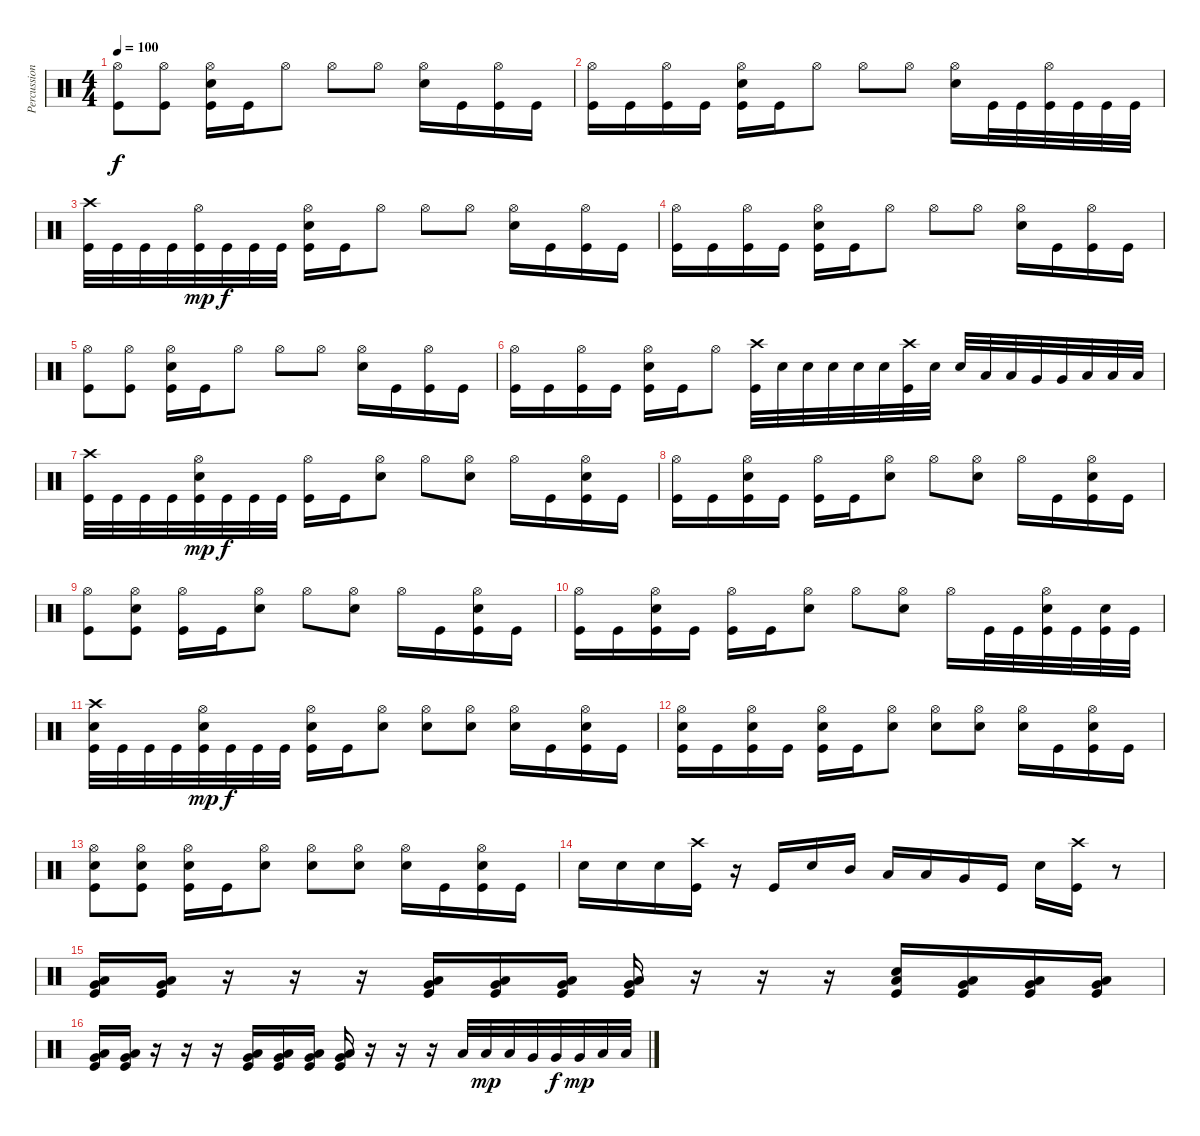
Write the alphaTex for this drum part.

\track ("Percussion" "Percussion") {instrument percussion}
\staff {score}
\articulation defaults
\ts (4 4)
\tempo 100
\clef neutral
\ks c
("Hi-Hat (open)" "Kick (hit)").8{dy f} ("Hi-Hat (open)" "Kick (hit)").8 ("Hi-Hat (open)" "Electric Snare (hit)" "Kick (hit)").16 "Kick (hit)".16 "Hi-Hat (open)".8 "Hi-Hat (open)".8 "Hi-Hat (open)".8 ("Hi-Hat (open)" "Electric Snare (hit)").16 "Kick (hit)".16 ("Hi-Hat (open)" "Kick (hit)").16 "Kick (hit)".16 |
("Hi-Hat (open)" "Kick (hit)").16 "Kick (hit)".16 ("Hi-Hat (open)" "Kick (hit)").16 "Kick (hit)".16 ("Hi-Hat (open)" "Electric Snare (hit)" "Kick (hit)").16 "Kick (hit)".16 "Hi-Hat (open)".8 "Hi-Hat (open)".8 "Hi-Hat (open)".8 ("Hi-Hat (open)" "Electric Snare (hit)").16 "Kick (hit)".32 "Kick (hit)".32 ("Hi-Hat (open)" "Kick (hit)").32 "Kick (hit)".32 "Kick (hit)".32 "Kick (hit)".32 |
("Crash high (hit)" "Kick (hit)").32 "Kick (hit)".32 "Kick (hit)".32 "Kick (hit)".32 ("Hi-Hat (open)" "Kick (hit)").32{dy mp} "Kick (hit)".32{dy f} "Kick (hit)".32 "Kick (hit)".32 ("Hi-Hat (open)" "Electric Snare (hit)" "Kick (hit)").16 "Kick (hit)".16 "Hi-Hat (open)".8 "Hi-Hat (open)".8 "Hi-Hat (open)".8 ("Hi-Hat (open)" "Electric Snare (hit)").16 "Kick (hit)".16 ("Hi-Hat (open)" "Kick (hit)").16 "Kick (hit)".16 |
("Hi-Hat (open)" "Kick (hit)").16 "Kick (hit)".16 ("Hi-Hat (open)" "Kick (hit)").16 "Kick (hit)".16 ("Hi-Hat (open)" "Electric Snare (hit)" "Kick (hit)").16 "Kick (hit)".16 "Hi-Hat (open)".8 "Hi-Hat (open)".8 "Hi-Hat (open)".8 ("Hi-Hat (open)" "Electric Snare (hit)").16 "Kick (hit)".16 ("Hi-Hat (open)" "Kick (hit)").16 "Kick (hit)".16 |
("Hi-Hat (open)" "Kick (hit)").8 ("Hi-Hat (open)" "Kick (hit)").8 ("Hi-Hat (open)" "Electric Snare (hit)" "Kick (hit)").16 "Kick (hit)".16 "Hi-Hat (open)".8 "Hi-Hat (open)".8 "Hi-Hat (open)".8 ("Hi-Hat (open)" "Electric Snare (hit)").16 "Kick (hit)".16 ("Hi-Hat (open)" "Kick (hit)").16 "Kick (hit)".16 |
("Hi-Hat (open)" "Kick (hit)").16 "Kick (hit)".16 ("Hi-Hat (open)" "Kick (hit)").16 "Kick (hit)".16 ("Hi-Hat (open)" "Electric Snare (hit)" "Kick (hit)").16 "Kick (hit)".16 "Hi-Hat (open)".8 ("Crash high (hit)" "Kick (hit)").32 "Electric Snare (hit)".32 "Electric Snare (hit)".32 "Electric Snare (hit)".32 "Electric Snare (hit)".32 "Electric Snare (hit)".32 ("Crash high (hit)" "Kick (hit)").32 "Electric Snare (hit)".32 "Electric Snare (hit)".32 "Low Tom (hit)".32 "Low Tom (hit)".32 "Very Low Tom (hit)".32 "Very Low Tom (hit)".32 "Low Floor Tom (hit)".32 "Low Floor Tom (hit)".32 "Low Floor Tom (hit)".32 |
("Crash high (hit)" "Kick (hit)").32 "Kick (hit)".32 "Kick (hit)".32 "Kick (hit)".32 ("Hi-Hat (open)" "Electric Snare (hit)" "Kick (hit)").32{dy mp} "Kick (hit)".32{dy f} "Kick (hit)".32 "Kick (hit)".32 ("Hi-Hat (open)" "Kick (hit)").16 "Kick (hit)".16 ("Hi-Hat (open)" "Electric Snare (hit)").8 "Hi-Hat (open)".8 ("Hi-Hat (open)" "Electric Snare (hit)").8 "Hi-Hat (open)".16 "Kick (hit)".16 ("Hi-Hat (open)" "Electric Snare (hit)" "Kick (hit)").16 "Kick (hit)".16 |
("Hi-Hat (open)" "Kick (hit)").16 "Kick (hit)".16 ("Hi-Hat (open)" "Electric Snare (hit)" "Kick (hit)").16 "Kick (hit)".16 ("Hi-Hat (open)" "Kick (hit)").16 "Kick (hit)".16 ("Hi-Hat (open)" "Electric Snare (hit)").8 "Hi-Hat (open)".8 ("Hi-Hat (open)" "Electric Snare (hit)").8 "Hi-Hat (open)".16 "Kick (hit)".16 ("Hi-Hat (open)" "Electric Snare (hit)" "Kick (hit)").16 "Kick (hit)".16 |
("Hi-Hat (open)" "Kick (hit)").8 ("Hi-Hat (open)" "Electric Snare (hit)" "Kick (hit)").8 ("Hi-Hat (open)" "Kick (hit)").16 "Kick (hit)".16 ("Hi-Hat (open)" "Electric Snare (hit)").8 "Hi-Hat (open)".8 ("Hi-Hat (open)" "Electric Snare (hit)").8 "Hi-Hat (open)".16 "Kick (hit)".16 ("Hi-Hat (open)" "Electric Snare (hit)" "Kick (hit)").16 "Kick (hit)".16 |
("Hi-Hat (open)" "Kick (hit)").16 "Kick (hit)".16 ("Hi-Hat (open)" "Electric Snare (hit)" "Kick (hit)").16 "Kick (hit)".16 ("Hi-Hat (open)" "Kick (hit)").16 "Kick (hit)".16 ("Hi-Hat (open)" "Electric Snare (hit)").8 "Hi-Hat (open)".8 ("Hi-Hat (open)" "Electric Snare (hit)").8 "Hi-Hat (open)".16 "Kick (hit)".32 "Kick (hit)".32 ("Hi-Hat (open)" "Electric Snare (hit)" "Kick (hit)").32 "Kick (hit)".32 ("Electric Snare (hit)" "Kick (hit)").32 "Kick (hit)".32 |
("Crash high (hit)" "Electric Snare (hit)" "Kick (hit)").32 "Kick (hit)".32 "Kick (hit)".32 "Kick (hit)".32 ("Hi-Hat (open)" "Electric Snare (hit)" "Kick (hit)").32{dy mp} "Kick (hit)".32{dy f} "Kick (hit)".32 "Kick (hit)".32 ("Hi-Hat (open)" "Electric Snare (hit)" "Kick (hit)").16 "Kick (hit)".16 ("Hi-Hat (open)" "Electric Snare (hit)").8 ("Hi-Hat (open)" "Electric Snare (hit)").8 ("Hi-Hat (open)" "Electric Snare (hit)").8 ("Hi-Hat (open)" "Electric Snare (hit)").16 "Kick (hit)".16 ("Hi-Hat (open)" "Electric Snare (hit)" "Kick (hit)").16 "Kick (hit)".16 |
("Hi-Hat (open)" "Electric Snare (hit)" "Kick (hit)").16 "Kick (hit)".16 ("Hi-Hat (open)" "Electric Snare (hit)" "Kick (hit)").16 "Kick (hit)".16 ("Hi-Hat (open)" "Electric Snare (hit)" "Kick (hit)").16 "Kick (hit)".16 ("Hi-Hat (open)" "Electric Snare (hit)").8 ("Hi-Hat (open)" "Electric Snare (hit)").8 ("Hi-Hat (open)" "Electric Snare (hit)").8 ("Hi-Hat (open)" "Electric Snare (hit)").16 "Kick (hit)".16 ("Hi-Hat (open)" "Electric Snare (hit)" "Kick (hit)").16 "Kick (hit)".16 |
("Hi-Hat (open)" "Electric Snare (hit)" "Kick (hit)").8 ("Hi-Hat (open)" "Electric Snare (hit)" "Kick (hit)").8 ("Hi-Hat (open)" "Electric Snare (hit)" "Kick (hit)").16 "Kick (hit)".16 ("Hi-Hat (open)" "Electric Snare (hit)").8 ("Hi-Hat (open)" "Electric Snare (hit)").8 ("Hi-Hat (open)" "Electric Snare (hit)").8 ("Hi-Hat (open)" "Electric Snare (hit)").16 "Kick (hit)".16 ("Hi-Hat (open)" "Electric Snare (hit)" "Kick (hit)").16 "Kick (hit)".16 |
"Electric Snare (hit)".16 "Electric Snare (hit)".16 "Electric Snare (hit)".16 ("Crash high (hit)" "Kick (hit)").16 r.16 "Kick (hit)".16 "Electric Snare (hit)".16 "Mid Tom (hit)".16 "Low Tom (hit)".16 "Low Tom (hit)".16 "Very Low Tom (hit)".16 "Kick (hit)".16 "Electric Snare (hit)".16 ("Crash high (hit)" "Kick (hit)").16 r.8 |
("Very Low Tom (hit)" "Low Floor Tom (hit)" "Kick (hit)").16 ("Very Low Tom (hit)" "Low Floor Tom (hit)" "Kick (hit)").16 r.16 r.16 r.16 ("Very Low Tom (hit)" "Low Floor Tom (hit)" "Kick (hit)").16 ("Very Low Tom (hit)" "Low Floor Tom (hit)" "Kick (hit)").16 ("Very Low Tom (hit)" "Low Floor Tom (hit)" "Kick (hit)").16 ("Very Low Tom (hit)" "Low Floor Tom (hit)" "Kick (hit)").16 r.16 r.16 r.16 ("Electric Snare (hit)" "Low Floor Tom (hit)" "Kick (hit)").16 ("Very Low Tom (hit)" "Low Floor Tom (hit)" "Kick (hit)").16 ("Very Low Tom (hit)" "Low Floor Tom (hit)" "Kick (hit)").16 ("Very Low Tom (hit)" "Low Floor Tom (hit)" "Kick (hit)").16 |
("Very Low Tom (hit)" "Low Floor Tom (hit)" "Kick (hit)").16 ("Very Low Tom (hit)" "Low Floor Tom (hit)" "Kick (hit)").16 r.16 r.16 r.16 ("Very Low Tom (hit)" "Low Floor Tom (hit)" "Kick (hit)").16 ("Very Low Tom (hit)" "Low Floor Tom (hit)" "Kick (hit)").16 ("Very Low Tom (hit)" "Low Floor Tom (hit)" "Kick (hit)").16 ("Very Low Tom (hit)" "Low Floor Tom (hit)" "Kick (hit)").16 r.16 r.16 r.16 "Low Tom (hit)".32 "Low Tom (hit)".32{dy mp} "Low Tom (hit)".32 "Very Low Tom (hit)".32 "Very Low Tom (hit)".32{dy f} "Very Low Tom (hit)".32{dy mp} "Low Floor Tom (hit)".32 "Low Floor Tom (hit)".32
